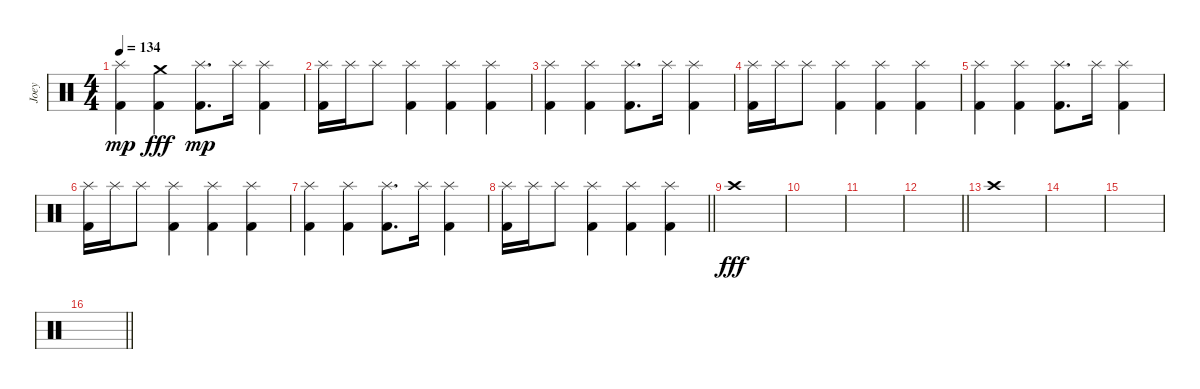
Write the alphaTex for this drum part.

\track ("Joey" "Joey") {instrument percussion}
\staff {score}
\articulation defaults
\ts (4 4)
\section ("" "")
\tempo 134
\clef neutral
\ks c
("Splash (hit)" "Kick (hit) 2").4{dy mp} ("Crash medium (hit)" "Kick (hit) 2").4{dy fff} ("Splash (hit)" "Kick (hit) 2").8{d dy mp} "Splash (hit)".16 ("Splash (hit)" "Kick (hit) 2").4 |
("Splash (hit)" "Kick (hit) 2").16 "Splash (hit)".16 "Splash (hit)".8 ("Splash (hit)" "Kick (hit) 2").4 ("Splash (hit)" "Kick (hit) 2").4 ("Splash (hit)" "Kick (hit) 2").4 |
("Splash (hit)" "Kick (hit) 2").4 ("Splash (hit)" "Kick (hit) 2").4 ("Splash (hit)" "Kick (hit) 2").8{d} "Splash (hit)".16 ("Splash (hit)" "Kick (hit) 2").4 |
("Splash (hit)" "Kick (hit) 2").16 "Splash (hit)".16 "Splash (hit)".8 ("Splash (hit)" "Kick (hit) 2").4 ("Splash (hit)" "Kick (hit) 2").4 ("Splash (hit)" "Kick (hit) 2").4 |
("Splash (hit)" "Kick (hit) 2").4 ("Splash (hit)" "Kick (hit) 2").4 ("Splash (hit)" "Kick (hit) 2").8{d} "Splash (hit)".16 ("Splash (hit)" "Kick (hit) 2").4 |
("Splash (hit)" "Kick (hit) 2").16 "Splash (hit)".16 "Splash (hit)".8 ("Splash (hit)" "Kick (hit) 2").4 ("Splash (hit)" "Kick (hit) 2").4 ("Splash (hit)" "Kick (hit) 2").4 |
("Splash (hit)" "Kick (hit) 2").4 ("Splash (hit)" "Kick (hit) 2").4 ("Splash (hit)" "Kick (hit) 2").8{d} "Splash (hit)".16 ("Splash (hit)" "Kick (hit) 2").4 |
\barLineRight lightlight
("Splash (hit)" "Kick (hit) 2").16 "Splash (hit)".16 "Splash (hit)".8 ("Splash (hit)" "Kick (hit) 2").4 ("Splash (hit)" "Kick (hit) 2").4 ("Splash (hit)" "Kick (hit) 2").4 |
\section ("" "")
"Crash high (hit)".1{dy fff} |
|
|
\barLineRight lightlight
|
\section ("" "")
"Crash high (hit)".1 |
|
|
\barLineRight lightlight
